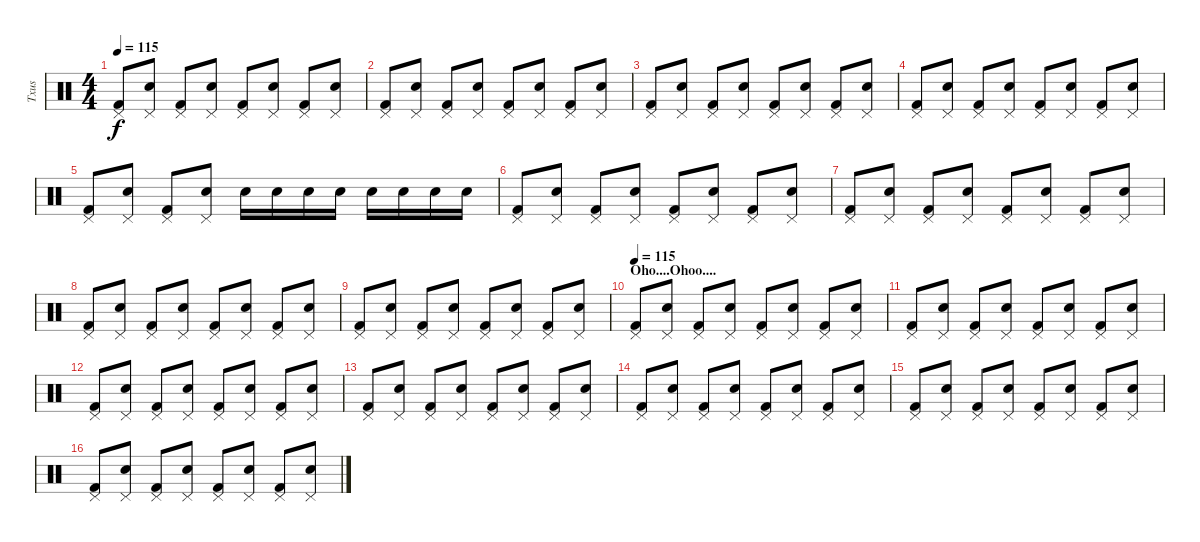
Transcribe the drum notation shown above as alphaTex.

\track ("Txus" "Txus") {instrument percussion}
\staff {score}
\articulation defaults
\ts (4 4)
\tempo 115
\clef neutral
\ks c
("Pedal Hi-Hat (hit)" "Kick (hit) 2").8{dy f} ("Pedal Hi-Hat (hit)" "Snare (hit) 2").8 ("Pedal Hi-Hat (hit)" "Kick (hit) 2").8 ("Pedal Hi-Hat (hit)" "Snare (hit) 2").8 ("Pedal Hi-Hat (hit)" "Kick (hit) 2").8 ("Pedal Hi-Hat (hit)" "Snare (hit) 2").8 ("Pedal Hi-Hat (hit)" "Kick (hit) 2").8 ("Pedal Hi-Hat (hit)" "Snare (hit) 2").8 |
("Pedal Hi-Hat (hit)" "Kick (hit) 2").8 ("Pedal Hi-Hat (hit)" "Snare (hit) 2").8 ("Pedal Hi-Hat (hit)" "Kick (hit) 2").8 ("Pedal Hi-Hat (hit)" "Snare (hit) 2").8 ("Pedal Hi-Hat (hit)" "Kick (hit) 2").8 ("Pedal Hi-Hat (hit)" "Snare (hit) 2").8 ("Pedal Hi-Hat (hit)" "Kick (hit) 2").8 ("Pedal Hi-Hat (hit)" "Snare (hit) 2").8 |
("Pedal Hi-Hat (hit)" "Kick (hit) 2").8 ("Pedal Hi-Hat (hit)" "Snare (hit) 2").8 ("Pedal Hi-Hat (hit)" "Kick (hit) 2").8 ("Pedal Hi-Hat (hit)" "Snare (hit) 2").8 ("Pedal Hi-Hat (hit)" "Kick (hit) 2").8 ("Pedal Hi-Hat (hit)" "Snare (hit) 2").8 ("Pedal Hi-Hat (hit)" "Kick (hit) 2").8 ("Pedal Hi-Hat (hit)" "Snare (hit) 2").8 |
("Pedal Hi-Hat (hit)" "Kick (hit) 2").8 ("Pedal Hi-Hat (hit)" "Snare (hit) 2").8 ("Pedal Hi-Hat (hit)" "Kick (hit) 2").8 ("Pedal Hi-Hat (hit)" "Snare (hit) 2").8 ("Pedal Hi-Hat (hit)" "Kick (hit) 2").8 ("Pedal Hi-Hat (hit)" "Snare (hit) 2").8 ("Pedal Hi-Hat (hit)" "Kick (hit) 2").8 ("Pedal Hi-Hat (hit)" "Snare (hit) 2").8 |
("Pedal Hi-Hat (hit)" "Kick (hit) 2").8 ("Pedal Hi-Hat (hit)" "Snare (hit) 2").8 ("Pedal Hi-Hat (hit)" "Kick (hit) 2").8 ("Pedal Hi-Hat (hit)" "Snare (hit) 2").8 "Snare (hit) 2".16 "Snare (hit) 2".16 "Snare (hit) 2".16 "Snare (hit) 2".16 "Snare (hit) 2".16 "Snare (hit) 2".16 "Snare (hit) 2".16 "Snare (hit) 2".16 |
("Pedal Hi-Hat (hit)" "Kick (hit) 2").8 ("Pedal Hi-Hat (hit)" "Snare (hit) 2").8 ("Pedal Hi-Hat (hit)" "Kick (hit) 2").8 ("Pedal Hi-Hat (hit)" "Snare (hit) 2").8 ("Pedal Hi-Hat (hit)" "Kick (hit) 2").8 ("Pedal Hi-Hat (hit)" "Snare (hit) 2").8 ("Pedal Hi-Hat (hit)" "Kick (hit) 2").8 ("Pedal Hi-Hat (hit)" "Snare (hit) 2").8 |
("Pedal Hi-Hat (hit)" "Kick (hit) 2").8 ("Pedal Hi-Hat (hit)" "Snare (hit) 2").8 ("Pedal Hi-Hat (hit)" "Kick (hit) 2").8 ("Pedal Hi-Hat (hit)" "Snare (hit) 2").8 ("Pedal Hi-Hat (hit)" "Kick (hit) 2").8 ("Pedal Hi-Hat (hit)" "Snare (hit) 2").8 ("Pedal Hi-Hat (hit)" "Kick (hit) 2").8 ("Pedal Hi-Hat (hit)" "Snare (hit) 2").8 |
("Pedal Hi-Hat (hit)" "Kick (hit) 2").8 ("Pedal Hi-Hat (hit)" "Snare (hit) 2").8 ("Pedal Hi-Hat (hit)" "Kick (hit) 2").8 ("Pedal Hi-Hat (hit)" "Snare (hit) 2").8 ("Pedal Hi-Hat (hit)" "Kick (hit) 2").8 ("Pedal Hi-Hat (hit)" "Snare (hit) 2").8 ("Pedal Hi-Hat (hit)" "Kick (hit) 2").8 ("Pedal Hi-Hat (hit)" "Snare (hit) 2").8 |
("Pedal Hi-Hat (hit)" "Kick (hit) 2").8 ("Pedal Hi-Hat (hit)" "Snare (hit) 2").8 ("Pedal Hi-Hat (hit)" "Kick (hit) 2").8 ("Pedal Hi-Hat (hit)" "Snare (hit) 2").8 ("Pedal Hi-Hat (hit)" "Kick (hit) 2").8 ("Pedal Hi-Hat (hit)" "Snare (hit) 2").8 ("Pedal Hi-Hat (hit)" "Kick (hit) 2").8 ("Pedal Hi-Hat (hit)" "Snare (hit) 2").8 |
\section ("" "Oho....Ohoo....")
\tempo 115
("Pedal Hi-Hat (hit)" "Kick (hit) 2").8 ("Pedal Hi-Hat (hit)" "Snare (hit) 2").8 ("Pedal Hi-Hat (hit)" "Kick (hit) 2").8 ("Pedal Hi-Hat (hit)" "Snare (hit) 2").8 ("Pedal Hi-Hat (hit)" "Kick (hit) 2").8 ("Pedal Hi-Hat (hit)" "Snare (hit) 2").8 ("Pedal Hi-Hat (hit)" "Kick (hit) 2").8 ("Pedal Hi-Hat (hit)" "Snare (hit) 2").8 |
("Pedal Hi-Hat (hit)" "Kick (hit) 2").8 ("Pedal Hi-Hat (hit)" "Snare (hit) 2").8 ("Pedal Hi-Hat (hit)" "Kick (hit) 2").8 ("Pedal Hi-Hat (hit)" "Snare (hit) 2").8 ("Pedal Hi-Hat (hit)" "Kick (hit) 2").8 ("Pedal Hi-Hat (hit)" "Snare (hit) 2").8 ("Pedal Hi-Hat (hit)" "Kick (hit) 2").8 ("Pedal Hi-Hat (hit)" "Snare (hit) 2").8 |
("Pedal Hi-Hat (hit)" "Kick (hit) 2").8 ("Pedal Hi-Hat (hit)" "Snare (hit) 2").8 ("Pedal Hi-Hat (hit)" "Kick (hit) 2").8 ("Pedal Hi-Hat (hit)" "Snare (hit) 2").8 ("Pedal Hi-Hat (hit)" "Kick (hit) 2").8 ("Pedal Hi-Hat (hit)" "Snare (hit) 2").8 ("Pedal Hi-Hat (hit)" "Kick (hit) 2").8 ("Pedal Hi-Hat (hit)" "Snare (hit) 2").8 |
("Pedal Hi-Hat (hit)" "Kick (hit) 2").8 ("Pedal Hi-Hat (hit)" "Snare (hit) 2").8 ("Pedal Hi-Hat (hit)" "Kick (hit) 2").8 ("Pedal Hi-Hat (hit)" "Snare (hit) 2").8 ("Pedal Hi-Hat (hit)" "Kick (hit) 2").8 ("Pedal Hi-Hat (hit)" "Snare (hit) 2").8 ("Pedal Hi-Hat (hit)" "Kick (hit) 2").8 ("Pedal Hi-Hat (hit)" "Snare (hit) 2").8 |
("Pedal Hi-Hat (hit)" "Kick (hit) 2").8 ("Pedal Hi-Hat (hit)" "Snare (hit) 2").8 ("Pedal Hi-Hat (hit)" "Kick (hit) 2").8 ("Pedal Hi-Hat (hit)" "Snare (hit) 2").8 ("Pedal Hi-Hat (hit)" "Kick (hit) 2").8 ("Pedal Hi-Hat (hit)" "Snare (hit) 2").8 ("Pedal Hi-Hat (hit)" "Kick (hit) 2").8 ("Pedal Hi-Hat (hit)" "Snare (hit) 2").8 |
("Pedal Hi-Hat (hit)" "Kick (hit) 2").8 ("Pedal Hi-Hat (hit)" "Snare (hit) 2").8 ("Pedal Hi-Hat (hit)" "Kick (hit) 2").8 ("Pedal Hi-Hat (hit)" "Snare (hit) 2").8 ("Pedal Hi-Hat (hit)" "Kick (hit) 2").8 ("Pedal Hi-Hat (hit)" "Snare (hit) 2").8 ("Pedal Hi-Hat (hit)" "Kick (hit) 2").8 ("Pedal Hi-Hat (hit)" "Snare (hit) 2").8 |
("Pedal Hi-Hat (hit)" "Kick (hit) 2").8 ("Pedal Hi-Hat (hit)" "Snare (hit) 2").8 ("Pedal Hi-Hat (hit)" "Kick (hit) 2").8 ("Pedal Hi-Hat (hit)" "Snare (hit) 2").8 ("Pedal Hi-Hat (hit)" "Kick (hit) 2").8 ("Pedal Hi-Hat (hit)" "Snare (hit) 2").8 ("Pedal Hi-Hat (hit)" "Kick (hit) 2").8 ("Pedal Hi-Hat (hit)" "Snare (hit) 2").8
